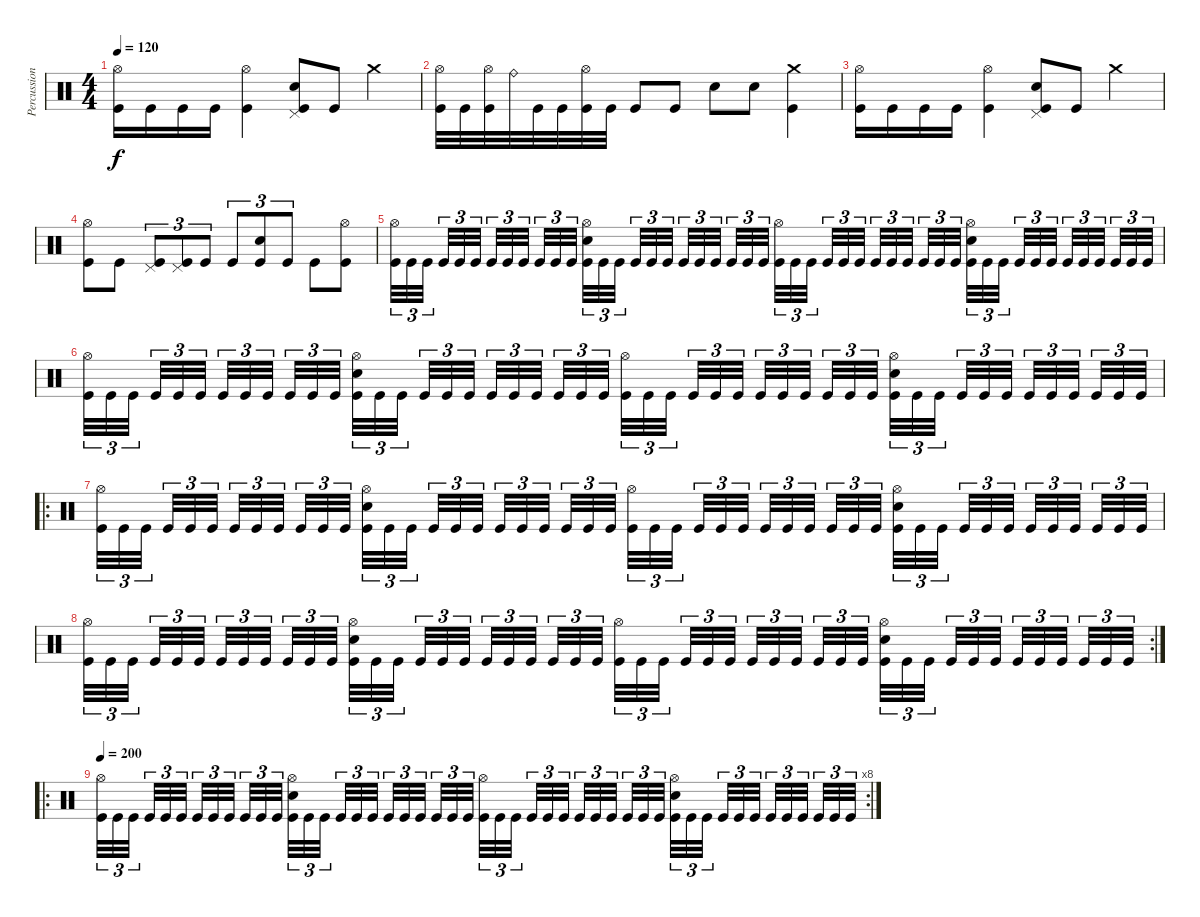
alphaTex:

\track ("Percussion" "Percussion") {instrument percussion}
\staff {score}
\articulation defaults
\ts (4 4)
\tempo 120
\clef neutral
\ks c
("Hi-Hat (open)" "Kick (hit)").16{dy f} "Kick (hit)".16 "Kick (hit)".16 "Kick (hit)".16 ("Hi-Hat (open)" "Kick (hit)").4 ("Pedal Hi-Hat (hit)" "Snare (hit) 2" "Kick (hit)").8 "Kick (hit)".8 "Crash medium (hit)".4 |
("Hi-Hat (open)" "Kick (hit)").32 "Kick (hit)".32 ("Hi-Hat (open)" "Kick (hit)").32 "Ride (bell)".32 "Kick (hit)".32 "Kick (hit)".32 ("Hi-Hat (open)" "Kick (hit)").32 "Kick (hit)".32 "Kick (hit)".8 "Kick (hit)".8 "Snare (hit) 2".8 "Snare (hit) 2".8 ("Crash medium (hit)" "Kick (hit)").4 |
("Hi-Hat (open)" "Kick (hit)").16 "Kick (hit)".16 "Kick (hit)".16 "Kick (hit)".16 ("Hi-Hat (open)" "Kick (hit)").4 ("Pedal Hi-Hat (hit)" "Snare (hit) 2" "Kick (hit)").8 "Kick (hit)".8 "Crash medium (hit)".4 |
("Hi-Hat (open)" "Kick (hit)").8 "Kick (hit)".8 ("Pedal Hi-Hat (hit)" "Kick (hit)").8{tu (3 2)} ("Pedal Hi-Hat (hit)" "Kick (hit)").8{tu (3 2)} "Kick (hit)".8{tu (3 2)} "Kick (hit)".8{tu (3 2)} ("Snare (hit) 2" "Kick (hit)").8{tu (3 2)} "Kick (hit)".8{tu (3 2)} "Kick (hit)".8 ("Hi-Hat (open)" "Kick (hit)").8 |
("Hi-Hat (open)" "Kick (hit)").32{tu (3 2)} "Kick (hit)".32{tu (3 2)} "Kick (hit)".32{tu (3 2)} "Kick (hit)".32{tu (3 2)} "Kick (hit)".32{tu (3 2)} "Kick (hit)".32{tu (3 2)} "Kick (hit)".32{tu (3 2)} "Kick (hit)".32{tu (3 2)} "Kick (hit)".32{tu (3 2)} "Kick (hit)".32{tu (3 2)} "Kick (hit)".32{tu (3 2)} "Kick (hit)".32{tu (3 2)} ("Hi-Hat (open)" "Snare (hit) 2" "Kick (hit)").32{tu (3 2)} "Kick (hit)".32{tu (3 2)} "Kick (hit)".32{tu (3 2)} "Kick (hit)".32{tu (3 2)} "Kick (hit)".32{tu (3 2)} "Kick (hit)".32{tu (3 2)} "Kick (hit)".32{tu (3 2)} "Kick (hit)".32{tu (3 2)} "Kick (hit)".32{tu (3 2)} "Kick (hit)".32{tu (3 2)} "Kick (hit)".32{tu (3 2)} "Kick (hit)".32{tu (3 2)} ("Hi-Hat (open)" "Kick (hit)").32{tu (3 2)} "Kick (hit)".32{tu (3 2)} "Kick (hit)".32{tu (3 2)} "Kick (hit)".32{tu (3 2)} "Kick (hit)".32{tu (3 2)} "Kick (hit)".32{tu (3 2)} "Kick (hit)".32{tu (3 2)} "Kick (hit)".32{tu (3 2)} "Kick (hit)".32{tu (3 2)} "Kick (hit)".32{tu (3 2)} "Kick (hit)".32{tu (3 2)} "Kick (hit)".32{tu (3 2)} ("Hi-Hat (open)" "Snare (hit) 2" "Kick (hit)").32{tu (3 2)} "Kick (hit)".32{tu (3 2)} "Kick (hit)".32{tu (3 2)} "Kick (hit)".32{tu (3 2)} "Kick (hit)".32{tu (3 2)} "Kick (hit)".32{tu (3 2)} "Kick (hit)".32{tu (3 2)} "Kick (hit)".32{tu (3 2)} "Kick (hit)".32{tu (3 2)} "Kick (hit)".32{tu (3 2)} "Kick (hit)".32{tu (3 2)} "Kick (hit)".32{tu (3 2)} |
("Hi-Hat (open)" "Kick (hit)").32{tu (3 2)} "Kick (hit)".32{tu (3 2)} "Kick (hit)".32{tu (3 2)} "Kick (hit)".32{tu (3 2)} "Kick (hit)".32{tu (3 2)} "Kick (hit)".32{tu (3 2)} "Kick (hit)".32{tu (3 2)} "Kick (hit)".32{tu (3 2)} "Kick (hit)".32{tu (3 2)} "Kick (hit)".32{tu (3 2)} "Kick (hit)".32{tu (3 2)} "Kick (hit)".32{tu (3 2)} ("Hi-Hat (open)" "Snare (hit) 2" "Kick (hit)").32{tu (3 2)} "Kick (hit)".32{tu (3 2)} "Kick (hit)".32{tu (3 2)} "Kick (hit)".32{tu (3 2)} "Kick (hit)".32{tu (3 2)} "Kick (hit)".32{tu (3 2)} "Kick (hit)".32{tu (3 2)} "Kick (hit)".32{tu (3 2)} "Kick (hit)".32{tu (3 2)} "Kick (hit)".32{tu (3 2)} "Kick (hit)".32{tu (3 2)} "Kick (hit)".32{tu (3 2)} ("Hi-Hat (open)" "Kick (hit)").32{tu (3 2)} "Kick (hit)".32{tu (3 2)} "Kick (hit)".32{tu (3 2)} "Kick (hit)".32{tu (3 2)} "Kick (hit)".32{tu (3 2)} "Kick (hit)".32{tu (3 2)} "Kick (hit)".32{tu (3 2)} "Kick (hit)".32{tu (3 2)} "Kick (hit)".32{tu (3 2)} "Kick (hit)".32{tu (3 2)} "Kick (hit)".32{tu (3 2)} "Kick (hit)".32{tu (3 2)} ("Hi-Hat (open)" "Snare (hit) 2" "Kick (hit)").32{tu (3 2)} "Kick (hit)".32{tu (3 2)} "Kick (hit)".32{tu (3 2)} "Kick (hit)".32{tu (3 2)} "Kick (hit)".32{tu (3 2)} "Kick (hit)".32{tu (3 2)} "Kick (hit)".32{tu (3 2)} "Kick (hit)".32{tu (3 2)} "Kick (hit)".32{tu (3 2)} "Kick (hit)".32{tu (3 2)} "Kick (hit)".32{tu (3 2)} "Kick (hit)".32{tu (3 2)} |
\ro
("Hi-Hat (open)" "Kick (hit)").32{tu (3 2)} "Kick (hit)".32{tu (3 2)} "Kick (hit)".32{tu (3 2)} "Kick (hit)".32{tu (3 2)} "Kick (hit)".32{tu (3 2)} "Kick (hit)".32{tu (3 2)} "Kick (hit)".32{tu (3 2)} "Kick (hit)".32{tu (3 2)} "Kick (hit)".32{tu (3 2)} "Kick (hit)".32{tu (3 2)} "Kick (hit)".32{tu (3 2)} "Kick (hit)".32{tu (3 2)} ("Hi-Hat (open)" "Snare (hit) 2" "Kick (hit)").32{tu (3 2)} "Kick (hit)".32{tu (3 2)} "Kick (hit)".32{tu (3 2)} "Kick (hit)".32{tu (3 2)} "Kick (hit)".32{tu (3 2)} "Kick (hit)".32{tu (3 2)} "Kick (hit)".32{tu (3 2)} "Kick (hit)".32{tu (3 2)} "Kick (hit)".32{tu (3 2)} "Kick (hit)".32{tu (3 2)} "Kick (hit)".32{tu (3 2)} "Kick (hit)".32{tu (3 2)} ("Hi-Hat (open)" "Kick (hit)").32{tu (3 2)} "Kick (hit)".32{tu (3 2)} "Kick (hit)".32{tu (3 2)} "Kick (hit)".32{tu (3 2)} "Kick (hit)".32{tu (3 2)} "Kick (hit)".32{tu (3 2)} "Kick (hit)".32{tu (3 2)} "Kick (hit)".32{tu (3 2)} "Kick (hit)".32{tu (3 2)} "Kick (hit)".32{tu (3 2)} "Kick (hit)".32{tu (3 2)} "Kick (hit)".32{tu (3 2)} ("Hi-Hat (open)" "Snare (hit) 2" "Kick (hit)").32{tu (3 2)} "Kick (hit)".32{tu (3 2)} "Kick (hit)".32{tu (3 2)} "Kick (hit)".32{tu (3 2)} "Kick (hit)".32{tu (3 2)} "Kick (hit)".32{tu (3 2)} "Kick (hit)".32{tu (3 2)} "Kick (hit)".32{tu (3 2)} "Kick (hit)".32{tu (3 2)} "Kick (hit)".32{tu (3 2)} "Kick (hit)".32{tu (3 2)} "Kick (hit)".32{tu (3 2)} |
\rc 2
("Hi-Hat (open)" "Kick (hit)").32{tu (3 2)} "Kick (hit)".32{tu (3 2)} "Kick (hit)".32{tu (3 2)} "Kick (hit)".32{tu (3 2)} "Kick (hit)".32{tu (3 2)} "Kick (hit)".32{tu (3 2)} "Kick (hit)".32{tu (3 2)} "Kick (hit)".32{tu (3 2)} "Kick (hit)".32{tu (3 2)} "Kick (hit)".32{tu (3 2)} "Kick (hit)".32{tu (3 2)} "Kick (hit)".32{tu (3 2)} ("Hi-Hat (open)" "Snare (hit) 2" "Kick (hit)").32{tu (3 2)} "Kick (hit)".32{tu (3 2)} "Kick (hit)".32{tu (3 2)} "Kick (hit)".32{tu (3 2)} "Kick (hit)".32{tu (3 2)} "Kick (hit)".32{tu (3 2)} "Kick (hit)".32{tu (3 2)} "Kick (hit)".32{tu (3 2)} "Kick (hit)".32{tu (3 2)} "Kick (hit)".32{tu (3 2)} "Kick (hit)".32{tu (3 2)} "Kick (hit)".32{tu (3 2)} ("Hi-Hat (open)" "Kick (hit)").32{tu (3 2)} "Kick (hit)".32{tu (3 2)} "Kick (hit)".32{tu (3 2)} "Kick (hit)".32{tu (3 2)} "Kick (hit)".32{tu (3 2)} "Kick (hit)".32{tu (3 2)} "Kick (hit)".32{tu (3 2)} "Kick (hit)".32{tu (3 2)} "Kick (hit)".32{tu (3 2)} "Kick (hit)".32{tu (3 2)} "Kick (hit)".32{tu (3 2)} "Kick (hit)".32{tu (3 2)} ("Hi-Hat (open)" "Snare (hit) 2" "Kick (hit)").32{tu (3 2)} "Kick (hit)".32{tu (3 2)} "Kick (hit)".32{tu (3 2)} "Kick (hit)".32{tu (3 2)} "Kick (hit)".32{tu (3 2)} "Kick (hit)".32{tu (3 2)} "Kick (hit)".32{tu (3 2)} "Kick (hit)".32{tu (3 2)} "Kick (hit)".32{tu (3 2)} "Kick (hit)".32{tu (3 2)} "Kick (hit)".32{tu (3 2)} "Kick (hit)".32{tu (3 2)} |
\ro
\rc 8
\tempo 200
("Hi-Hat (open)" "Kick (hit)").32{tu (3 2)} "Kick (hit)".32{tu (3 2)} "Kick (hit)".32{tu (3 2)} "Kick (hit)".32{tu (3 2)} "Kick (hit)".32{tu (3 2)} "Kick (hit)".32{tu (3 2)} "Kick (hit)".32{tu (3 2)} "Kick (hit)".32{tu (3 2)} "Kick (hit)".32{tu (3 2)} "Kick (hit)".32{tu (3 2)} "Kick (hit)".32{tu (3 2)} "Kick (hit)".32{tu (3 2)} ("Hi-Hat (open)" "Snare (hit) 2" "Kick (hit)").32{tu (3 2)} "Kick (hit)".32{tu (3 2)} "Kick (hit)".32{tu (3 2)} "Kick (hit)".32{tu (3 2)} "Kick (hit)".32{tu (3 2)} "Kick (hit)".32{tu (3 2)} "Kick (hit)".32{tu (3 2)} "Kick (hit)".32{tu (3 2)} "Kick (hit)".32{tu (3 2)} "Kick (hit)".32{tu (3 2)} "Kick (hit)".32{tu (3 2)} "Kick (hit)".32{tu (3 2)} ("Hi-Hat (open)" "Kick (hit)").32{tu (3 2)} "Kick (hit)".32{tu (3 2)} "Kick (hit)".32{tu (3 2)} "Kick (hit)".32{tu (3 2)} "Kick (hit)".32{tu (3 2)} "Kick (hit)".32{tu (3 2)} "Kick (hit)".32{tu (3 2)} "Kick (hit)".32{tu (3 2)} "Kick (hit)".32{tu (3 2)} "Kick (hit)".32{tu (3 2)} "Kick (hit)".32{tu (3 2)} "Kick (hit)".32{tu (3 2)} ("Hi-Hat (open)" "Snare (hit) 2" "Kick (hit)").32{tu (3 2)} "Kick (hit)".32{tu (3 2)} "Kick (hit)".32{tu (3 2)} "Kick (hit)".32{tu (3 2)} "Kick (hit)".32{tu (3 2)} "Kick (hit)".32{tu (3 2)} "Kick (hit)".32{tu (3 2)} "Kick (hit)".32{tu (3 2)} "Kick (hit)".32{tu (3 2)} "Kick (hit)".32{tu (3 2)} "Kick (hit)".32{tu (3 2)} "Kick (hit)".32{tu (3 2)}
